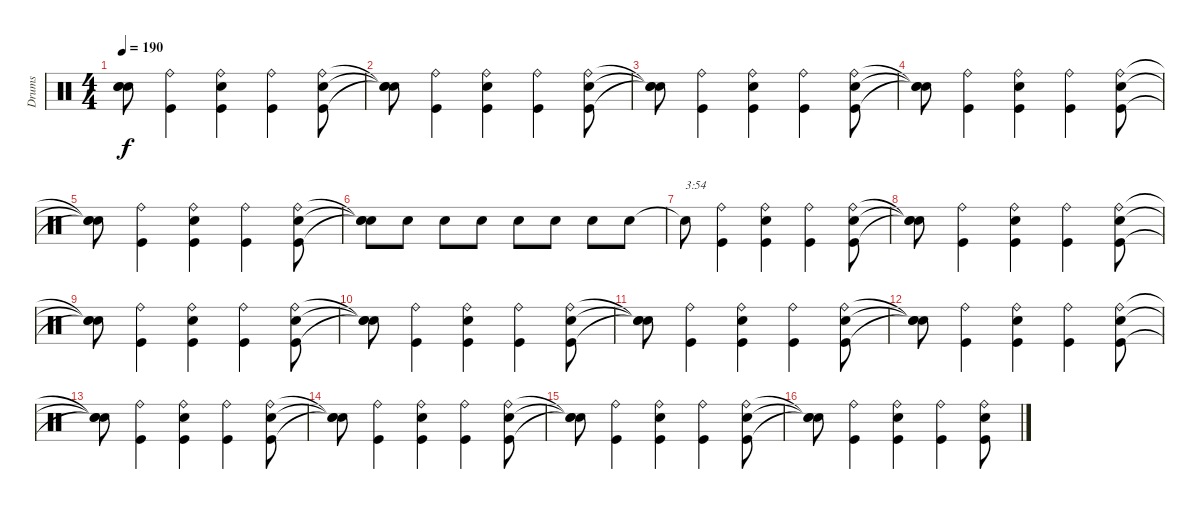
\track ("Drums" "Drums") {instrument percussion}
\staff {score}
\articulation defaults
\ts (4 4)
\tempo 190
\clef neutral
\ks c
("Snare (hit)"{t} "Snare (hit)"{t} "Snare (hit)"{t}).8{dy f} ("Kick (hit)" "Ride (bell)").4 ("Kick (hit)" "Snare (hit) 2" "Ride (bell)").4 ("Kick (hit)" "Ride (bell)").4 ("Kick (hit)" "Snare (hit) 2" "Ride (bell)").8 |
("Snare (hit)"{t} "Snare (hit)"{t} "Snare (hit)"{t}).8 ("Kick (hit)" "Ride (bell)").4 ("Kick (hit)" "Snare (hit) 2" "Ride (bell)").4 ("Kick (hit)" "Ride (bell)").4 ("Kick (hit)" "Snare (hit) 2" "Ride (bell)").8 |
("Snare (hit)"{t} "Snare (hit)"{t} "Snare (hit)"{t}).8 ("Kick (hit)" "Ride (bell)").4 ("Kick (hit)" "Snare (hit) 2" "Ride (bell)").4 ("Kick (hit)" "Ride (bell)").4 ("Kick (hit)" "Snare (hit) 2" "Ride (bell)").8 |
("Snare (hit)"{t} "Snare (hit)"{t} "Snare (hit)"{t}).8 ("Kick (hit)" "Ride (bell)").4 ("Kick (hit)" "Snare (hit) 2" "Ride (bell)").4 ("Kick (hit)" "Ride (bell)").4 ("Kick (hit)" "Snare (hit) 2" "Ride (bell)").8 |
("Snare (hit)"{t} "Snare (hit)"{t} "Snare (hit)"{t}).8 ("Kick (hit)" "Ride (bell)").4 ("Kick (hit)" "Snare (hit) 2" "Ride (bell)").4 ("Kick (hit)" "Ride (bell)").4 ("Kick (hit)" "Snare (hit) 2" "Ride (bell)").8 |
("Snare (hit)"{t} "Snare (hit)"{t} "Snare (hit)"{t}).8 "Snare (hit) 2".8 "Snare (hit) 2".8 "Snare (hit) 2".8 "Snare (hit) 2".8 "Snare (hit) 2".8 "Snare (hit) 2".8 "Snare (hit) 2".8 |
"Snare (hit)"{t}.8{txt "3:54"} ("Kick (hit)" "Ride (bell)").4 ("Kick (hit)" "Snare (hit) 2" "Ride (bell)").4 ("Kick (hit)" "Ride (bell)").4 ("Kick (hit)" "Snare (hit) 2" "Ride (bell)").8 |
("Snare (hit)"{t} "Snare (hit)"{t} "Snare (hit)"{t}).8 ("Kick (hit)" "Ride (bell)").4 ("Kick (hit)" "Snare (hit) 2" "Ride (bell)").4 ("Kick (hit)" "Ride (bell)").4 ("Kick (hit)" "Snare (hit) 2" "Ride (bell)").8 |
("Snare (hit)"{t} "Snare (hit)"{t} "Snare (hit)"{t}).8 ("Kick (hit)" "Ride (bell)").4 ("Kick (hit)" "Snare (hit) 2" "Ride (bell)").4 ("Kick (hit)" "Ride (bell)").4 ("Kick (hit)" "Snare (hit) 2" "Ride (bell)").8 |
("Snare (hit)"{t} "Snare (hit)"{t} "Snare (hit)"{t}).8 ("Kick (hit)" "Ride (bell)").4 ("Kick (hit)" "Snare (hit) 2" "Ride (bell)").4 ("Kick (hit)" "Ride (bell)").4 ("Kick (hit)" "Snare (hit) 2" "Ride (bell)").8 |
("Snare (hit)"{t} "Snare (hit)"{t} "Snare (hit)"{t}).8 ("Kick (hit)" "Ride (bell)").4 ("Kick (hit)" "Snare (hit) 2" "Ride (bell)").4 ("Kick (hit)" "Ride (bell)").4 ("Kick (hit)" "Snare (hit) 2" "Ride (bell)").8 |
("Snare (hit)"{t} "Snare (hit)"{t} "Snare (hit)"{t}).8 ("Kick (hit)" "Ride (bell)").4 ("Kick (hit)" "Snare (hit) 2" "Ride (bell)").4 ("Kick (hit)" "Ride (bell)").4 ("Kick (hit)" "Snare (hit) 2" "Ride (bell)").8 |
("Snare (hit)"{t} "Snare (hit)"{t} "Snare (hit)"{t}).8 ("Kick (hit)" "Ride (bell)").4 ("Kick (hit)" "Snare (hit) 2" "Ride (bell)").4 ("Kick (hit)" "Ride (bell)").4 ("Kick (hit)" "Snare (hit) 2" "Ride (bell)").8 |
("Snare (hit)"{t} "Snare (hit)"{t} "Snare (hit)"{t}).8 ("Kick (hit)" "Ride (bell)").4 ("Kick (hit)" "Snare (hit) 2" "Ride (bell)").4 ("Kick (hit)" "Ride (bell)").4 ("Kick (hit)" "Snare (hit) 2" "Ride (bell)").8 |
("Snare (hit)"{t} "Snare (hit)"{t} "Snare (hit)"{t}).8 ("Kick (hit)" "Ride (bell)").4 ("Kick (hit)" "Snare (hit) 2" "Ride (bell)").4 ("Kick (hit)" "Ride (bell)").4 ("Kick (hit)" "Snare (hit) 2" "Ride (bell)").8 |
("Snare (hit)"{t} "Snare (hit)"{t} "Snare (hit)"{t}).8 ("Kick (hit)" "Ride (bell)").4 ("Kick (hit)" "Snare (hit) 2" "Ride (bell)").4 ("Kick (hit)" "Ride (bell)").4 ("Kick (hit)" "Snare (hit) 2" "Ride (bell)").8
